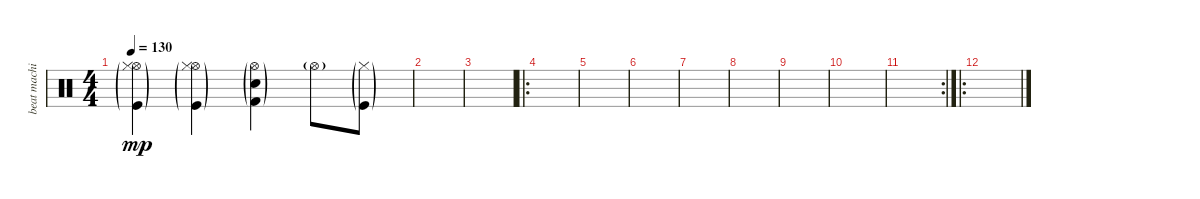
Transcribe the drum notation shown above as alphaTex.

\track ("beat machine" "beat machi") {instrument percussion}
\staff {score}
\articulation defaults
\ts (4 4)
\tempo 130
\clef neutral
\ks c
("Hi-Hat (open)"{g} "Hi-Hat (closed)"{g} "Kick (hit)"{g}).4{dy mp} ("Hi-Hat (open)"{g} "Hi-Hat (closed)"{g} "Kick (hit)"{g}).4 ("Hi-Hat (open)"{g} "Kick (hit) 2"{g} "Snare (hit) 2"{g}).4 "Hi-Hat (open)"{g}.8 ("Hi-Hat (closed)"{g} "Kick (hit)"{g}).8 |
|
|
\ro
|
|
|
|
|
|
|
\rc 2
|
\ro
